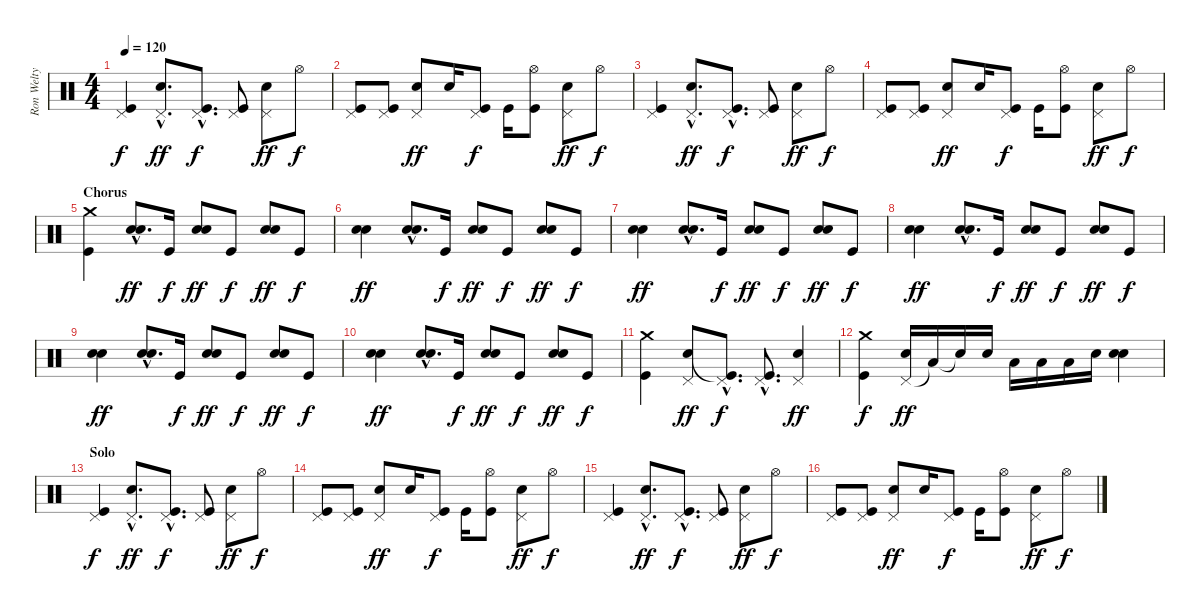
\track ("Ron Welty" "Ron Welty") {instrument percussion}
\staff {score}
\articulation defaults
\ts (4 4)
\tempo 120
\clef neutral
\ks c
("Pedal Hi-Hat (hit)" "Kick (hit)").4{dy f} ("Pedal Hi-Hat (hit)"{hac} "Snare (hit) 2"{hac}).8{d dy ff} ("Pedal Hi-Hat (hit)"{hac} "Kick (hit)"{hac}).8{d dy f} ("Pedal Hi-Hat (hit)" "Kick (hit)").8 ("Pedal Hi-Hat (hit)" "Snare (hit) 2").8{dy ff} "Hi-Hat (open)".8{dy f} |
("Pedal Hi-Hat (hit)" "Kick (hit)").8 ("Pedal Hi-Hat (hit)" "Kick (hit)").8 ("Pedal Hi-Hat (hit)" "Snare (hit) 2").8{dy ff} "Snare (hit) 2".16 ("Pedal Hi-Hat (hit)" "Kick (hit)").8{dy f} "Kick (hit)".16 ("Hi-Hat (open)" "Kick (hit)").8 ("Pedal Hi-Hat (hit)" "Snare (hit) 2").8{dy ff} "Hi-Hat (open)".8{dy f} |
("Pedal Hi-Hat (hit)" "Kick (hit)").4 ("Pedal Hi-Hat (hit)"{hac} "Snare (hit) 2"{hac}).8{d dy ff} ("Pedal Hi-Hat (hit)"{hac} "Kick (hit)"{hac}).8{d dy f} ("Pedal Hi-Hat (hit)" "Kick (hit)").8 ("Pedal Hi-Hat (hit)" "Snare (hit) 2").8{dy ff} "Hi-Hat (open)".8{dy f} |
("Pedal Hi-Hat (hit)" "Kick (hit)").8 ("Pedal Hi-Hat (hit)" "Kick (hit)").8 ("Pedal Hi-Hat (hit)" "Snare (hit) 2").8{dy ff} "Snare (hit) 2".16 ("Pedal Hi-Hat (hit)" "Kick (hit)").8{dy f} "Kick (hit)".16 ("Hi-Hat (open)" "Kick (hit)").8 ("Pedal Hi-Hat (hit)" "Snare (hit) 2").8{dy ff} "Hi-Hat (open)".8{dy f} |
\section ("" "Chorus")
("Crash medium (hit)" "Kick (hit)").4 ("Snare (hit) 2"{hac} "Snare (hit) 2"{hac}).8{d bd 120 dy ff} "Kick (hit)".16{dy f} ("Snare (hit) 2" "Snare (hit) 2").8{bd 120 dy ff} "Kick (hit)".8{dy f} ("Snare (hit) 2" "Snare (hit) 2").8{bd 120 dy ff} "Kick (hit)".8{dy f} |
("Snare (hit) 2" "Snare (hit) 2").4{bd 120 dy ff} ("Snare (hit) 2"{hac} "Snare (hit) 2"{hac}).8{d bd 120} "Kick (hit)".16{dy f} ("Snare (hit) 2" "Snare (hit) 2").8{bd 120 dy ff} "Kick (hit)".8{dy f} ("Snare (hit) 2" "Snare (hit) 2").8{bd 120 dy ff} "Kick (hit)".8{dy f} |
("Snare (hit) 2" "Snare (hit) 2").4{bd 120 dy ff} ("Snare (hit) 2"{hac} "Snare (hit) 2"{hac}).8{d bd 120} "Kick (hit)".16{dy f} ("Snare (hit) 2" "Snare (hit) 2").8{bd 120 dy ff} "Kick (hit)".8{dy f} ("Snare (hit) 2" "Snare (hit) 2").8{bd 120 dy ff} "Kick (hit)".8{dy f} |
("Snare (hit) 2" "Snare (hit) 2").4{bd 120 dy ff} ("Snare (hit) 2"{hac} "Snare (hit) 2"{hac}).8{d bd 120} "Kick (hit)".16{dy f} ("Snare (hit) 2" "Snare (hit) 2").8{bd 120 dy ff} "Kick (hit)".8{dy f} ("Snare (hit) 2" "Snare (hit) 2").8{bd 120 dy ff} "Kick (hit)".8{dy f} |
("Snare (hit) 2" "Snare (hit) 2").4{bd 120 dy ff} ("Snare (hit) 2"{hac} "Snare (hit) 2"{hac}).8{d bd 120} "Kick (hit)".16{dy f} ("Snare (hit) 2" "Snare (hit) 2").8{bd 120 dy ff} "Kick (hit)".8{dy f} ("Snare (hit) 2" "Snare (hit) 2").8{bd 120 dy ff} "Kick (hit)".8{dy f} |
("Snare (hit) 2" "Snare (hit) 2").4{bd 120 dy ff} ("Snare (hit) 2"{hac} "Snare (hit) 2"{hac}).8{d bd 120} "Kick (hit)".16{dy f} ("Snare (hit) 2" "Snare (hit) 2").8{bd 120 dy ff} "Kick (hit)".8{dy f} ("Snare (hit) 2" "Snare (hit) 2").8{bd 120 dy ff} "Kick (hit)".8{dy f} |
("Crash medium (hit)" "Kick (hit)").4 ("Pedal Hi-Hat (hit)" "Snare (hit) 2").8{dy ff} ("Pedal Hi-Hat (hit)"{hac} "Kick (hit)"{hac t}).8{d dy f} ("Pedal Hi-Hat (hit)"{hac} "Kick (hit)"{hac}).8{d} ("Pedal Hi-Hat (hit)" "Snare (hit) 2").4{dy ff} |
("Crash medium (hit)" "Kick (hit)").4{dy f} ("Pedal Hi-Hat (hit)" "Snare (hit) 2").16{dy ff} "Low Tom (hit)"{t}.16 "Snare (hit) 2"{t}.16 "Snare (hit) 2".16 "Low Tom (hit)".16 "Low Tom (hit)".16 "Low Tom (hit)".16 "Snare (hit) 2".16 ("Snare (hit) 2" "Snare (hit) 2").4{bd 120} |
\section ("" "Solo")
("Pedal Hi-Hat (hit)" "Kick (hit)").4{dy f} ("Pedal Hi-Hat (hit)"{hac} "Snare (hit) 2"{hac}).8{d dy ff} ("Pedal Hi-Hat (hit)"{hac} "Kick (hit)"{hac}).8{d dy f} ("Pedal Hi-Hat (hit)" "Kick (hit)").8 ("Pedal Hi-Hat (hit)" "Snare (hit) 2").8{dy ff} "Hi-Hat (open)".8{dy f} |
("Pedal Hi-Hat (hit)" "Kick (hit)").8 ("Pedal Hi-Hat (hit)" "Kick (hit)").8 ("Pedal Hi-Hat (hit)" "Snare (hit) 2").8{dy ff} "Snare (hit) 2".16 ("Pedal Hi-Hat (hit)" "Kick (hit)").8{dy f} "Kick (hit)".16 ("Hi-Hat (open)" "Kick (hit)").8 ("Pedal Hi-Hat (hit)" "Snare (hit) 2").8{dy ff} "Hi-Hat (open)".8{dy f} |
("Pedal Hi-Hat (hit)" "Kick (hit)").4 ("Pedal Hi-Hat (hit)"{hac} "Snare (hit) 2"{hac}).8{d dy ff} ("Pedal Hi-Hat (hit)"{hac} "Kick (hit)"{hac}).8{d dy f} ("Pedal Hi-Hat (hit)" "Kick (hit)").8 ("Pedal Hi-Hat (hit)" "Snare (hit) 2").8{dy ff} "Hi-Hat (open)".8{dy f} |
("Pedal Hi-Hat (hit)" "Kick (hit)").8 ("Pedal Hi-Hat (hit)" "Kick (hit)").8 ("Pedal Hi-Hat (hit)" "Snare (hit) 2").8{dy ff} "Snare (hit) 2".16 ("Pedal Hi-Hat (hit)" "Kick (hit)").8{dy f} "Kick (hit)".16 ("Hi-Hat (open)" "Kick (hit)").8 ("Pedal Hi-Hat (hit)" "Snare (hit) 2").8{dy ff} "Hi-Hat (open)".8{dy f}
